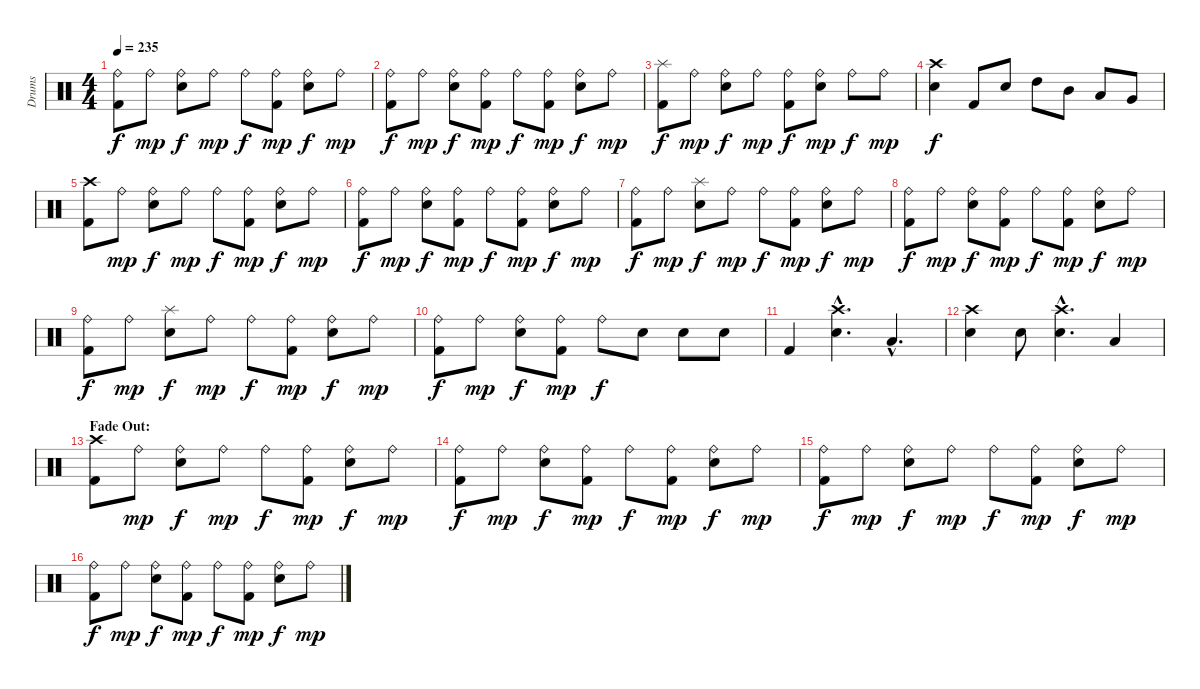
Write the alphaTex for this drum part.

\track ("Drums" "Drums") {instrument percussion}
\staff {score}
\articulation defaults
\ts (4 4)
\tempo 235
\clef neutral
\ks c
("Ride (bell)" "Kick (hit) 2").8{dy f} "Ride (bell)".8{dy mp} ("Ride (bell)" "Snare (hit) 2").8{dy f} "Ride (bell)".8{dy mp} "Ride (bell)".8{dy f} ("Ride (bell)" "Kick (hit) 2").8{dy mp} ("Ride (bell)" "Snare (hit) 2").8{dy f} "Ride (bell)".8{dy mp} |
("Ride (bell)" "Kick (hit) 2").8{dy f} "Ride (bell)".8{dy mp} ("Ride (bell)" "Snare (hit) 2").8{dy f} ("Ride (bell)" "Kick (hit) 2").8{dy mp} "Ride (bell)".8{dy f} ("Ride (bell)" "Kick (hit) 2").8{dy mp} ("Ride (bell)" "Snare (hit) 2").8{dy f} "Ride (bell)".8{dy mp} |
("Splash (hit)" "Kick (hit) 2").8{dy f} "Ride (bell)".8{dy mp} ("Ride (bell)" "Snare (hit) 2").8{dy f} "Ride (bell)".8{dy mp} ("Ride (bell)" "Kick (hit) 2").8{dy f} ("Ride (bell)" "Snare (hit) 2").8{dy mp} "Ride (bell)".8{dy f} "Ride (bell)".8{dy mp} |
("Crash high (hit)" "Snare (hit) 2").4{dy f} "Kick (hit) 2".8 "Snare (hit) 2".8 "High Tom (hit)".8 "Mid Tom (hit)".8 "Low Tom (hit)".8 "Very Low Tom (hit)".8 |
("Crash high (hit)" "Kick (hit) 2").8 "Ride (bell)".8{dy mp} ("Ride (bell)" "Snare (hit) 2").8{dy f} "Ride (bell)".8{dy mp} "Ride (bell)".8{dy f} ("Ride (bell)" "Kick (hit) 2").8{dy mp} ("Ride (bell)" "Snare (hit) 2").8{dy f} "Ride (bell)".8{dy mp} |
("Ride (bell)" "Kick (hit) 2").8{dy f} "Ride (bell)".8{dy mp} ("Ride (bell)" "Snare (hit) 2").8{dy f} ("Ride (bell)" "Kick (hit) 2").8{dy mp} "Ride (bell)".8{dy f} ("Ride (bell)" "Kick (hit) 2").8{dy mp} ("Ride (bell)" "Snare (hit) 2").8{dy f} "Ride (bell)".8{dy mp} |
("Ride (bell)" "Kick (hit) 2").8{dy f} "Ride (bell)".8{dy mp} ("Splash (hit)" "Snare (hit) 2").8{dy f} "Ride (bell)".8{dy mp} "Ride (bell)".8{dy f} ("Ride (bell)" "Kick (hit) 2").8{dy mp} ("Ride (bell)" "Snare (hit) 2").8{dy f} "Ride (bell)".8{dy mp} |
("Ride (bell)" "Kick (hit) 2").8{dy f} "Ride (bell)".8{dy mp} ("Ride (bell)" "Snare (hit) 2").8{dy f} ("Ride (bell)" "Kick (hit) 2").8{dy mp} "Ride (bell)".8{dy f} ("Ride (bell)" "Kick (hit) 2").8{dy mp} ("Ride (bell)" "Snare (hit) 2").8{dy f} "Ride (bell)".8{dy mp} |
("Ride (bell)" "Kick (hit) 2").8{dy f} "Ride (bell)".8{dy mp} ("Splash (hit)" "Snare (hit) 2").8{dy f} "Ride (bell)".8{dy mp} "Ride (bell)".8{dy f} ("Ride (bell)" "Kick (hit) 2").8{dy mp} ("Ride (bell)" "Snare (hit) 2").8{dy f} "Ride (bell)".8{dy mp} |
("Ride (bell)" "Kick (hit) 2").8{dy f} "Ride (bell)".8{dy mp} ("Ride (bell)" "Snare (hit) 2").8{dy f} ("Ride (bell)" "Kick (hit) 2").8{dy mp} "Ride (bell)".8{dy f} "Snare (hit) 2".8 "Snare (hit) 2".8 "Snare (hit) 2".8 |
"Kick (hit) 2".4 ("Crash high (hit)"{hac} "Snare (hit) 2"{hac}).4{d} "Low Tom (hit)"{hac}.4{d} |
("Crash high (hit)" "Snare (hit) 2").4 "Snare (hit) 2".8 ("Crash high (hit)"{hac} "Snare (hit) 2"{hac}).4{d} "Low Tom (hit)".4 |
\section ("" "Fade Out:")
("Crash high (hit)" "Kick (hit) 2").8{volume 10} "Ride (bell)".8{dy mp} ("Ride (bell)" "Snare (hit) 2").8{dy f} "Ride (bell)".8{dy mp} "Ride (bell)".8{dy f} ("Ride (bell)" "Kick (hit) 2").8{dy mp} ("Ride (bell)" "Snare (hit) 2").8{dy f} "Ride (bell)".8{dy mp} |
("Ride (bell)" "Kick (hit) 2").8{dy f} "Ride (bell)".8{dy mp} ("Ride (bell)" "Snare (hit) 2").8{dy f} ("Ride (bell)" "Kick (hit) 2").8{dy mp} "Ride (bell)".8{dy f} ("Ride (bell)" "Kick (hit) 2").8{dy mp} ("Ride (bell)" "Snare (hit) 2").8{dy f} "Ride (bell)".8{dy mp} |
("Ride (bell)" "Kick (hit) 2").8{dy f} "Ride (bell)".8{dy mp} ("Ride (bell)" "Snare (hit) 2").8{dy f} "Ride (bell)".8{dy mp} "Ride (bell)".8{dy f} ("Ride (bell)" "Kick (hit) 2").8{dy mp} ("Ride (bell)" "Snare (hit) 2").8{dy f} "Ride (bell)".8{dy mp} |
("Ride (bell)" "Kick (hit) 2").8{dy f} "Ride (bell)".8{dy mp} ("Ride (bell)" "Snare (hit) 2").8{dy f} ("Ride (bell)" "Kick (hit) 2").8{dy mp} "Ride (bell)".8{dy f} ("Ride (bell)" "Kick (hit) 2").8{dy mp} ("Ride (bell)" "Snare (hit) 2").8{dy f} "Ride (bell)".8{dy mp}
